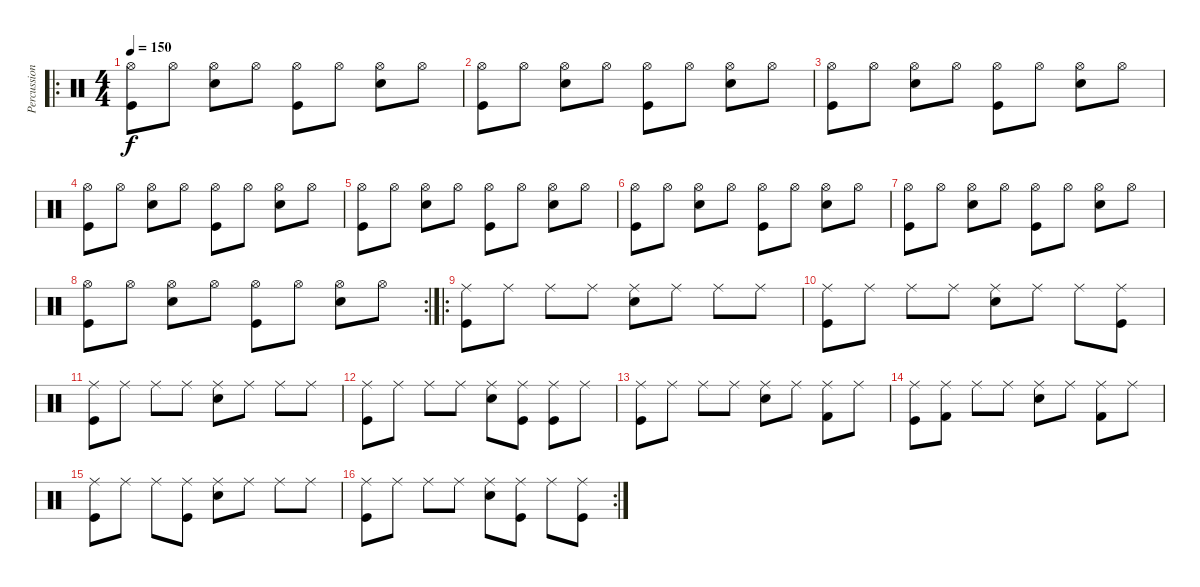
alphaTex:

\track ("Percussion" "Percussion") {instrument percussion}
\staff {score}
\articulation defaults
\ro
\ts (4 4)
\tempo 150
\clef neutral
\ks c
("Hi-Hat (open)" "Kick (hit)").8{dy f} "Hi-Hat (open)".8 ("Hi-Hat (open)" "Electric Snare (hit)").8 "Hi-Hat (open)".8 ("Hi-Hat (open)" "Kick (hit)").8 "Hi-Hat (open)".8 ("Hi-Hat (open)" "Electric Snare (hit)").8 "Hi-Hat (open)".8 |
("Hi-Hat (open)" "Kick (hit)").8 "Hi-Hat (open)".8 ("Hi-Hat (open)" "Electric Snare (hit)").8 "Hi-Hat (open)".8 ("Hi-Hat (open)" "Kick (hit)").8 "Hi-Hat (open)".8 ("Hi-Hat (open)" "Electric Snare (hit)").8 "Hi-Hat (open)".8 |
("Hi-Hat (open)" "Kick (hit)").8 "Hi-Hat (open)".8 ("Hi-Hat (open)" "Electric Snare (hit)").8 "Hi-Hat (open)".8 ("Hi-Hat (open)" "Kick (hit)").8 "Hi-Hat (open)".8 ("Hi-Hat (open)" "Electric Snare (hit)").8 "Hi-Hat (open)".8 |
("Hi-Hat (open)" "Kick (hit)").8 "Hi-Hat (open)".8 ("Hi-Hat (open)" "Electric Snare (hit)").8 "Hi-Hat (open)".8 ("Hi-Hat (open)" "Kick (hit)").8 "Hi-Hat (open)".8 ("Hi-Hat (open)" "Electric Snare (hit)").8 "Hi-Hat (open)".8 |
("Hi-Hat (open)" "Kick (hit)").8 "Hi-Hat (open)".8 ("Hi-Hat (open)" "Electric Snare (hit)").8 "Hi-Hat (open)".8 ("Hi-Hat (open)" "Kick (hit)").8 "Hi-Hat (open)".8 ("Hi-Hat (open)" "Electric Snare (hit)").8 "Hi-Hat (open)".8 |
("Hi-Hat (open)" "Kick (hit)").8 "Hi-Hat (open)".8 ("Hi-Hat (open)" "Electric Snare (hit)").8 "Hi-Hat (open)".8 ("Hi-Hat (open)" "Kick (hit)").8 "Hi-Hat (open)".8 ("Hi-Hat (open)" "Electric Snare (hit)").8 "Hi-Hat (open)".8 |
("Hi-Hat (open)" "Kick (hit)").8 "Hi-Hat (open)".8 ("Hi-Hat (open)" "Electric Snare (hit)").8 "Hi-Hat (open)".8 ("Hi-Hat (open)" "Kick (hit)").8 "Hi-Hat (open)".8 ("Hi-Hat (open)" "Electric Snare (hit)").8 "Hi-Hat (open)".8 |
\rc 2
("Hi-Hat (open)" "Kick (hit)").8 "Hi-Hat (open)".8 ("Hi-Hat (open)" "Electric Snare (hit)").8 "Hi-Hat (open)".8 ("Hi-Hat (open)" "Kick (hit)").8 "Hi-Hat (open)".8 ("Hi-Hat (open)" "Electric Snare (hit)").8 "Hi-Hat (open)".8 |
\ro
("Ride (middle)" "Kick (hit)").8 "Ride (middle)".8 "Ride (middle)".8 "Ride (middle)".8 ("Ride (middle)" "Electric Snare (hit)").8 "Ride (middle)".8 "Ride (middle)".8 "Ride (middle)".8 |
("Ride (middle)" "Kick (hit)").8 "Ride (middle)".8 "Ride (middle)".8 "Ride (middle)".8 ("Ride (middle)" "Electric Snare (hit)").8 "Ride (middle)".8 "Ride (middle)".8 ("Ride (middle)" "Kick (hit)").8 |
("Ride (middle)" "Kick (hit)").8 "Ride (middle)".8 "Ride (middle)".8 "Ride (middle)".8 ("Ride (middle)" "Electric Snare (hit)").8 "Ride (middle)".8 "Ride (middle)".8 "Ride (middle)".8 |
("Ride (middle)" "Kick (hit)").8 "Ride (middle)".8 "Ride (middle)".8 "Ride (middle)".8 ("Ride (middle)" "Electric Snare (hit)").8 ("Ride (middle)" "Kick (hit)").8 ("Ride (middle)" "Kick (hit)").8 "Ride (middle)".8 |
("Ride (middle)" "Kick (hit)").8 "Ride (middle)".8 "Ride (middle)".8 "Ride (middle)".8 ("Ride (middle)" "Electric Snare (hit)").8 "Ride (middle)".8 ("Ride (middle)" "Kick (hit) 2").8 "Ride (middle)".8 |
("Ride (middle)" "Kick (hit)").8 ("Ride (middle)" "Kick (hit) 2").8 "Ride (middle)".8 "Ride (middle)".8 ("Ride (middle)" "Electric Snare (hit)").8 "Ride (middle)".8 ("Ride (middle)" "Kick (hit) 2").8 "Ride (middle)".8 |
("Ride (middle)" "Kick (hit)").8 "Ride (middle)".8 "Ride (middle)".8 ("Ride (middle)" "Kick (hit)").8 ("Ride (middle)" "Electric Snare (hit)").8 "Ride (middle)".8 "Ride (middle)".8 "Ride (middle)".8 |
\rc 2
("Ride (middle)" "Kick (hit)").8 "Ride (middle)".8 "Ride (middle)".8 "Ride (middle)".8 ("Ride (middle)" "Electric Snare (hit)").8 ("Ride (middle)" "Kick (hit)").8 "Ride (middle)".8 ("Ride (middle)" "Kick (hit)").8
